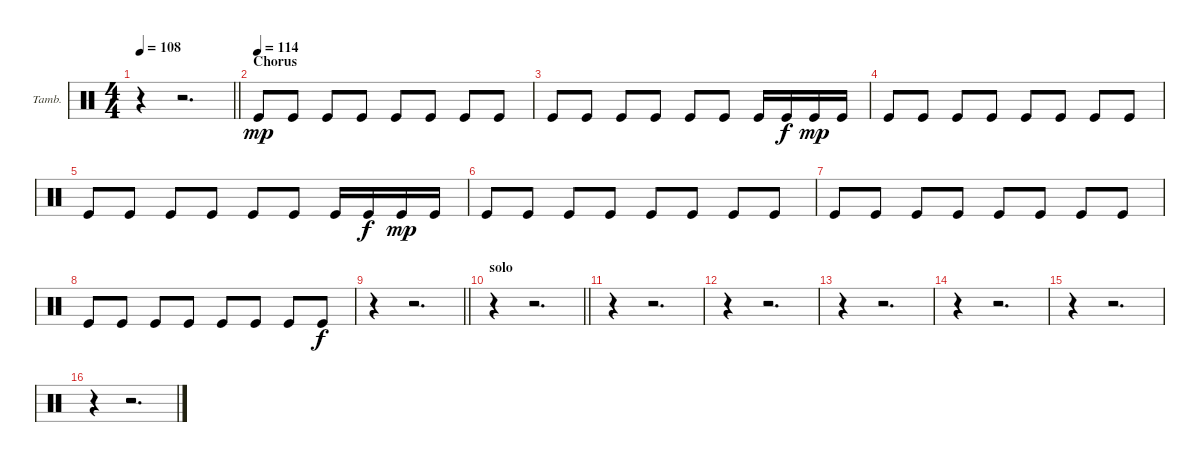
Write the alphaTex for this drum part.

\bracketExtendMode groupsimilarinstruments
\firstSystemTrackNameOrientation horizontal
\otherSystemsTrackNameOrientation horizontal
\track ("Tambourine" "Tamb.") {instrument percussion}
\staff {score}
\articulation defaults
\ts (4 4)
\tempo 108
\clef neutral
\barLineRight lightlight
\ks c
r.4{dy f} r.2{d} |
\section ("" "Chorus")
\tempo (114)
"Kick (hit)".8{dy mp} "Kick (hit)".8 "Kick (hit)".8 "Kick (hit)".8 "Kick (hit)".8 "Kick (hit)".8 "Kick (hit)".8 "Kick (hit)".8 |
"Kick (hit)".8 "Kick (hit)".8 "Kick (hit)".8 "Kick (hit)".8 "Kick (hit)".8 "Kick (hit)".8 "Kick (hit)".16 "Kick (hit)".16{dy f} "Kick (hit)".16{dy mp} "Kick (hit)".16 |
"Kick (hit)".8 "Kick (hit)".8 "Kick (hit)".8 "Kick (hit)".8 "Kick (hit)".8 "Kick (hit)".8 "Kick (hit)".8 "Kick (hit)".8 |
"Kick (hit)".8 "Kick (hit)".8 "Kick (hit)".8 "Kick (hit)".8 "Kick (hit)".8 "Kick (hit)".8 "Kick (hit)".16 "Kick (hit)".16{dy f} "Kick (hit)".16{dy mp} "Kick (hit)".16 |
"Kick (hit)".8 "Kick (hit)".8 "Kick (hit)".8 "Kick (hit)".8 "Kick (hit)".8 "Kick (hit)".8 "Kick (hit)".8 "Kick (hit)".8 |
"Kick (hit)".8 "Kick (hit)".8 "Kick (hit)".8 "Kick (hit)".8 "Kick (hit)".8 "Kick (hit)".8 "Kick (hit)".8 "Kick (hit)".8 |
"Kick (hit)".8 "Kick (hit)".8 "Kick (hit)".8 "Kick (hit)".8 "Kick (hit)".8 "Kick (hit)".8 "Kick (hit)".8 "Kick (hit)".8{dy f} |
\barLineRight lightlight
r.4 r.2{d} |
\section ("" "solo")
\barLineRight lightlight
r.4 r.2{d} |
r.4 r.2{d} |
r.4 r.2{d} |
r.4 r.2{d} |
r.4 r.2{d} |
r.4 r.2{d} |
r.4 r.2{d}
